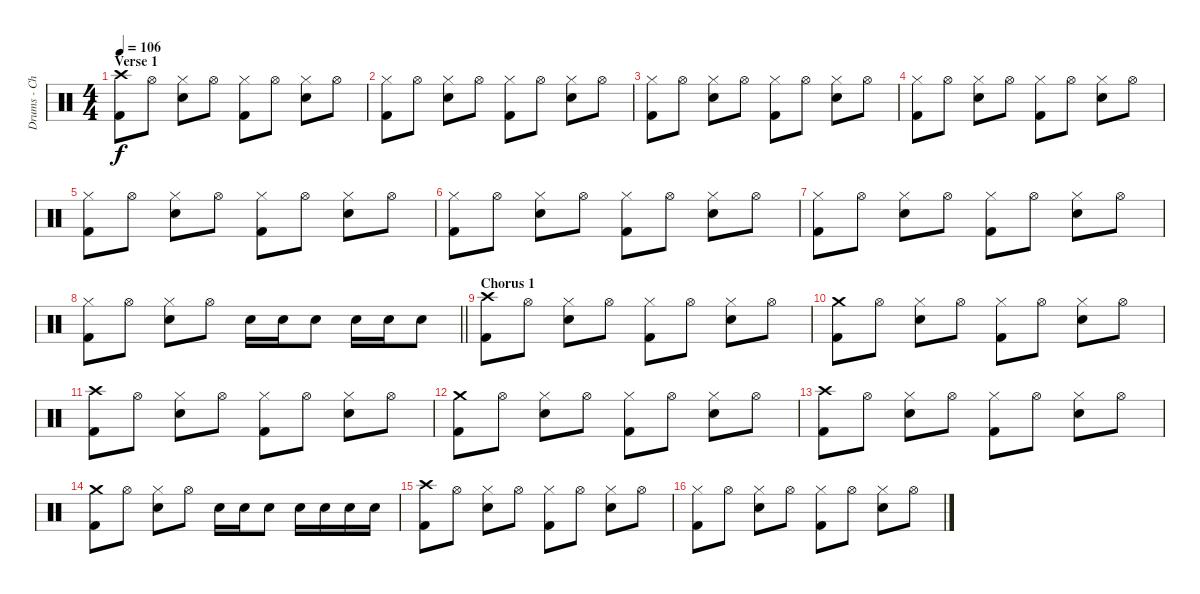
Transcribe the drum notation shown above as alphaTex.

\track ("Drums - Christoph Schneider" "Drums - Ch") {instrument percussion}
\staff {score}
\articulation defaults
\ts (4 4)
\section ("" "Verse 1")
\tempo 106
\clef neutral
\ks c
("Crash high (hit)" "Kick (hit) 2").8{dy f} "Hi-Hat (open)".8 ("Hi-Hat (closed)" "Snare (hit) 2").8 "Hi-Hat (open)".8 ("Hi-Hat (closed)" "Kick (hit) 2").8 "Hi-Hat (open)".8 ("Hi-Hat (closed)" "Snare (hit) 2").8 "Hi-Hat (open)".8 |
("Hi-Hat (closed)" "Kick (hit) 2").8 "Hi-Hat (open)".8 ("Hi-Hat (closed)" "Snare (hit) 2").8 "Hi-Hat (open)".8 ("Hi-Hat (closed)" "Kick (hit) 2").8 "Hi-Hat (open)".8 ("Hi-Hat (closed)" "Snare (hit) 2").8 "Hi-Hat (open)".8 |
("Hi-Hat (closed)" "Kick (hit) 2").8 "Hi-Hat (open)".8 ("Hi-Hat (closed)" "Snare (hit) 2").8 "Hi-Hat (open)".8 ("Hi-Hat (closed)" "Kick (hit) 2").8 "Hi-Hat (open)".8 ("Hi-Hat (closed)" "Snare (hit) 2").8 "Hi-Hat (open)".8 |
("Hi-Hat (closed)" "Kick (hit) 2").8 "Hi-Hat (open)".8 ("Hi-Hat (closed)" "Snare (hit) 2").8 "Hi-Hat (open)".8 ("Hi-Hat (closed)" "Kick (hit) 2").8 "Hi-Hat (open)".8 ("Hi-Hat (closed)" "Snare (hit) 2").8 "Hi-Hat (open)".8 |
("Hi-Hat (closed)" "Kick (hit) 2").8 "Hi-Hat (open)".8 ("Hi-Hat (closed)" "Snare (hit) 2").8 "Hi-Hat (open)".8 ("Hi-Hat (closed)" "Kick (hit) 2").8 "Hi-Hat (open)".8 ("Hi-Hat (closed)" "Snare (hit) 2").8 "Hi-Hat (open)".8 |
("Hi-Hat (closed)" "Kick (hit) 2").8 "Hi-Hat (open)".8 ("Hi-Hat (closed)" "Snare (hit) 2").8 "Hi-Hat (open)".8 ("Hi-Hat (closed)" "Kick (hit) 2").8 "Hi-Hat (open)".8 ("Hi-Hat (closed)" "Snare (hit) 2").8 "Hi-Hat (open)".8 |
("Hi-Hat (closed)" "Kick (hit) 2").8 "Hi-Hat (open)".8 ("Hi-Hat (closed)" "Snare (hit) 2").8 "Hi-Hat (open)".8 ("Hi-Hat (closed)" "Kick (hit) 2").8 "Hi-Hat (open)".8 ("Hi-Hat (closed)" "Snare (hit) 2").8 "Hi-Hat (open)".8 |
\barLineRight lightlight
("Hi-Hat (closed)" "Kick (hit) 2").8 "Hi-Hat (open)".8 ("Hi-Hat (closed)" "Snare (hit) 2").8 "Hi-Hat (open)".8 "Snare (hit) 2".16 "Snare (hit) 2".16 "Snare (hit) 2".8 "Snare (hit) 2".16 "Snare (hit) 2".16 "Snare (hit) 2".8 |
\section ("" "Chorus 1")
("Crash high (hit)" "Kick (hit) 2").8 "Hi-Hat (open)".8 ("Hi-Hat (closed)" "Snare (hit) 2").8 "Hi-Hat (open)".8 ("Hi-Hat (closed)" "Kick (hit) 2").8 "Hi-Hat (open)".8 ("Hi-Hat (closed)" "Snare (hit) 2").8 "Hi-Hat (open)".8 |
("Crash medium (hit)" "Kick (hit) 2").8 "Hi-Hat (open)".8 ("Hi-Hat (closed)" "Snare (hit) 2").8 "Hi-Hat (open)".8 ("Hi-Hat (closed)" "Kick (hit) 2").8 "Hi-Hat (open)".8 ("Hi-Hat (closed)" "Snare (hit) 2").8 "Hi-Hat (open)".8 |
("Crash high (hit)" "Kick (hit) 2").8 "Hi-Hat (open)".8 ("Hi-Hat (closed)" "Snare (hit) 2").8 "Hi-Hat (open)".8 ("Hi-Hat (closed)" "Kick (hit) 2").8 "Hi-Hat (open)".8 ("Hi-Hat (closed)" "Snare (hit) 2").8 "Hi-Hat (open)".8 |
("Crash medium (hit)" "Kick (hit) 2").8 "Hi-Hat (open)".8 ("Hi-Hat (closed)" "Snare (hit) 2").8 "Hi-Hat (open)".8 ("Hi-Hat (closed)" "Kick (hit) 2").8 "Hi-Hat (open)".8 ("Hi-Hat (closed)" "Snare (hit) 2").8 "Hi-Hat (open)".8 |
("Crash high (hit)" "Kick (hit) 2").8 "Hi-Hat (open)".8 ("Hi-Hat (closed)" "Snare (hit) 2").8 "Hi-Hat (open)".8 ("Hi-Hat (closed)" "Kick (hit) 2").8 "Hi-Hat (open)".8 ("Hi-Hat (closed)" "Snare (hit) 2").8 "Hi-Hat (open)".8 |
("Crash medium (hit)" "Kick (hit) 2").8 "Hi-Hat (open)".8 ("Hi-Hat (closed)" "Snare (hit) 2").8 "Hi-Hat (open)".8 "Snare (hit) 2".16 "Snare (hit) 2".16 "Snare (hit) 2".8 "Snare (hit) 2".16 "Snare (hit) 2".16 "Snare (hit) 2".16 "Snare (hit) 2".16 |
("Crash high (hit)" "Kick (hit) 2").8 "Hi-Hat (open)".8 ("Hi-Hat (closed)" "Snare (hit) 2").8 "Hi-Hat (open)".8 ("Hi-Hat (closed)" "Kick (hit) 2").8 "Hi-Hat (open)".8 ("Hi-Hat (closed)" "Snare (hit) 2").8 "Hi-Hat (open)".8 |
("Hi-Hat (closed)" "Kick (hit) 2").8 "Hi-Hat (open)".8 ("Hi-Hat (closed)" "Snare (hit) 2").8 "Hi-Hat (open)".8 ("Hi-Hat (closed)" "Kick (hit) 2").8 "Hi-Hat (open)".8 ("Hi-Hat (closed)" "Snare (hit) 2").8 "Hi-Hat (open)".8
